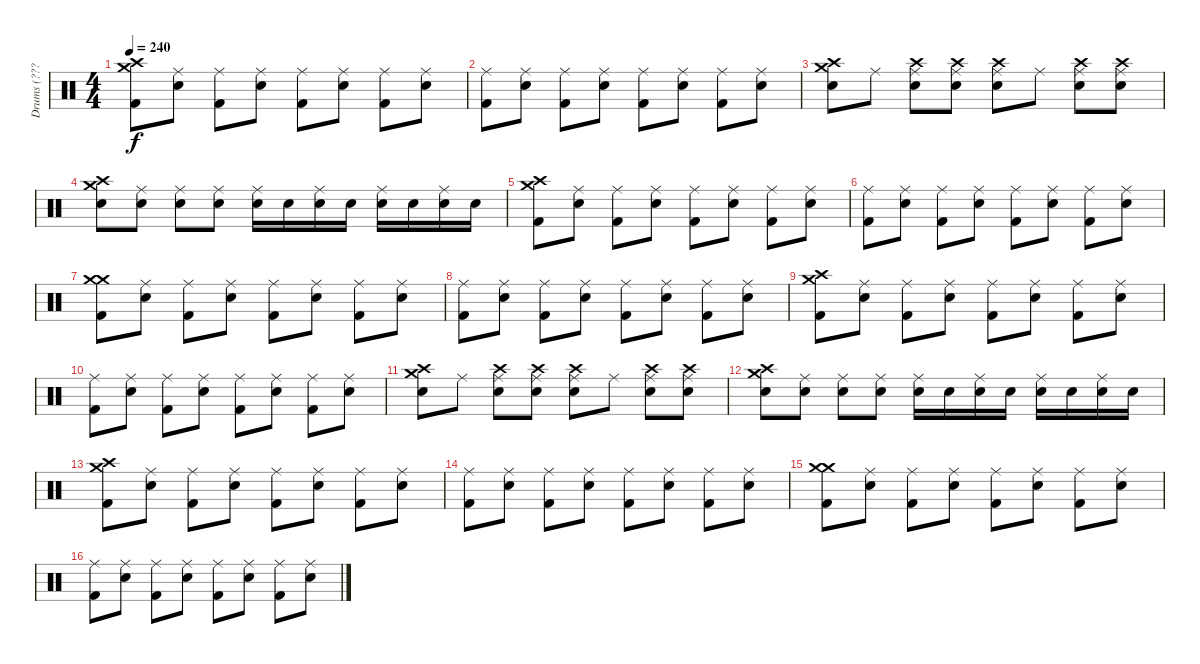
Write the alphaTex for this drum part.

\track ("Drums (????)" "Drums (???") {instrument percussion}
\staff {score}
\articulation defaults
\ts (4 4)
\tempo 240
\clef neutral
\ks c
("Crash medium (hit)" "Crash high (hit)" "Kick (hit) 2").8{dy f} ("Ride (middle)" "Snare (hit) 2").8 ("Ride (middle)" "Kick (hit) 2").8 ("Ride (middle)" "Snare (hit) 2").8 ("Ride (middle)" "Kick (hit) 2").8 ("Ride (middle)" "Snare (hit) 2").8 ("Ride (middle)" "Kick (hit) 2").8 ("Ride (middle)" "Snare (hit) 2").8 |
("Ride (middle)" "Kick (hit) 2").8 ("Ride (middle)" "Snare (hit) 2").8 ("Ride (middle)" "Kick (hit) 2").8 ("Ride (middle)" "Snare (hit) 2").8 ("Ride (middle)" "Kick (hit) 2").8 ("Ride (middle)" "Snare (hit) 2").8 ("Ride (middle)" "Kick (hit) 2").8 ("Ride (middle)" "Snare (hit) 2").8 |
("Crash medium (hit)" "Crash high (hit)" "Snare (hit) 2").8 "Ride (middle)".8 ("Ride (middle)" "Crash high (hit)" "Snare (hit) 2").8 ("Ride (middle)" "Crash high (hit)" "Snare (hit) 2").8 ("Ride (middle)" "Crash high (hit)" "Snare (hit) 2").8 "Ride (middle)".8 ("Ride (middle)" "Crash high (hit)" "Snare (hit) 2").8 ("Ride (middle)" "Crash high (hit)" "Snare (hit) 2").8 |
("Crash medium (hit)" "Crash high (hit)" "Snare (hit) 2").8 ("Ride (middle)" "Snare (hit) 2").8 ("Ride (middle)" "Snare (hit) 2").8 ("Ride (middle)" "Snare (hit) 2").8 ("Ride (middle)" "Snare (hit) 2").16 "Snare (hit) 2".16 ("Ride (middle)" "Snare (hit) 2").16 "Snare (hit) 2".16 ("Ride (middle)" "Snare (hit) 2").16 "Snare (hit) 2".16 ("Ride (middle)" "Snare (hit) 2").16 "Snare (hit) 2".16 |
("Crash medium (hit)" "Crash high (hit)" "Kick (hit) 2").8 ("Ride (middle)" "Snare (hit) 2").8 ("Ride (middle)" "Kick (hit) 2").8 ("Ride (middle)" "Snare (hit) 2").8 ("Ride (middle)" "Kick (hit) 2").8 ("Ride (middle)" "Snare (hit) 2").8 ("Ride (middle)" "Kick (hit) 2").8 ("Ride (middle)" "Snare (hit) 2").8 |
("Ride (middle)" "Kick (hit) 2").8 ("Ride (middle)" "Snare (hit) 2").8 ("Ride (middle)" "Kick (hit) 2").8 ("Ride (middle)" "Snare (hit) 2").8 ("Ride (middle)" "Kick (hit) 2").8 ("Ride (middle)" "Snare (hit) 2").8 ("Ride (middle)" "Kick (hit) 2").8 ("Ride (middle)" "Snare (hit) 2").8 |
("Crash medium (hit)" "Crash medium (hit)" "Kick (hit) 2").8 ("Ride (middle)" "Snare (hit) 2").8 ("Ride (middle)" "Kick (hit) 2").8 ("Ride (middle)" "Snare (hit) 2").8 ("Ride (middle)" "Kick (hit) 2").8 ("Ride (middle)" "Snare (hit) 2").8 ("Ride (middle)" "Kick (hit) 2").8 ("Ride (middle)" "Snare (hit) 2").8 |
("Ride (middle)" "Kick (hit) 2").8 ("Ride (middle)" "Snare (hit) 2").8 ("Ride (middle)" "Kick (hit) 2").8 ("Ride (middle)" "Snare (hit) 2").8 ("Ride (middle)" "Kick (hit) 2").8 ("Ride (middle)" "Snare (hit) 2").8 ("Ride (middle)" "Kick (hit) 2").8 ("Ride (middle)" "Snare (hit) 2").8 |
("Crash medium (hit)" "Crash high (hit)" "Kick (hit) 2").8 ("Ride (middle)" "Snare (hit) 2").8 ("Ride (middle)" "Kick (hit) 2").8 ("Ride (middle)" "Snare (hit) 2").8 ("Ride (middle)" "Kick (hit) 2").8 ("Ride (middle)" "Snare (hit) 2").8 ("Ride (middle)" "Kick (hit) 2").8 ("Ride (middle)" "Snare (hit) 2").8 |
("Ride (middle)" "Kick (hit) 2").8 ("Ride (middle)" "Snare (hit) 2").8 ("Ride (middle)" "Kick (hit) 2").8 ("Ride (middle)" "Snare (hit) 2").8 ("Ride (middle)" "Kick (hit) 2").8 ("Ride (middle)" "Snare (hit) 2").8 ("Ride (middle)" "Kick (hit) 2").8 ("Ride (middle)" "Snare (hit) 2").8 |
("Crash medium (hit)" "Crash high (hit)" "Snare (hit) 2").8 "Ride (middle)".8 ("Ride (middle)" "Crash high (hit)" "Snare (hit) 2").8 ("Ride (middle)" "Crash high (hit)" "Snare (hit) 2").8 ("Ride (middle)" "Crash high (hit)" "Snare (hit) 2").8 "Ride (middle)".8 ("Ride (middle)" "Crash high (hit)" "Snare (hit) 2").8 ("Ride (middle)" "Crash high (hit)" "Snare (hit) 2").8 |
("Crash medium (hit)" "Crash high (hit)" "Snare (hit) 2").8 ("Ride (middle)" "Snare (hit) 2").8 ("Ride (middle)" "Snare (hit) 2").8 ("Ride (middle)" "Snare (hit) 2").8 ("Ride (middle)" "Snare (hit) 2").16 "Snare (hit) 2".16 ("Ride (middle)" "Snare (hit) 2").16 "Snare (hit) 2".16 ("Ride (middle)" "Snare (hit) 2").16 "Snare (hit) 2".16 ("Ride (middle)" "Snare (hit) 2").16 "Snare (hit) 2".16 |
("Crash medium (hit)" "Crash high (hit)" "Kick (hit) 2").8 ("Ride (middle)" "Snare (hit) 2").8 ("Ride (middle)" "Kick (hit) 2").8 ("Ride (middle)" "Snare (hit) 2").8 ("Ride (middle)" "Kick (hit) 2").8 ("Ride (middle)" "Snare (hit) 2").8 ("Ride (middle)" "Kick (hit) 2").8 ("Ride (middle)" "Snare (hit) 2").8 |
("Ride (middle)" "Kick (hit) 2").8 ("Ride (middle)" "Snare (hit) 2").8 ("Ride (middle)" "Kick (hit) 2").8 ("Ride (middle)" "Snare (hit) 2").8 ("Ride (middle)" "Kick (hit) 2").8 ("Ride (middle)" "Snare (hit) 2").8 ("Ride (middle)" "Kick (hit) 2").8 ("Ride (middle)" "Snare (hit) 2").8 |
("Crash medium (hit)" "Crash medium (hit)" "Kick (hit) 2").8 ("Ride (middle)" "Snare (hit) 2").8 ("Ride (middle)" "Kick (hit) 2").8 ("Ride (middle)" "Snare (hit) 2").8 ("Ride (middle)" "Kick (hit) 2").8 ("Ride (middle)" "Snare (hit) 2").8 ("Ride (middle)" "Kick (hit) 2").8 ("Ride (middle)" "Snare (hit) 2").8 |
("Ride (middle)" "Kick (hit) 2").8 ("Ride (middle)" "Snare (hit) 2").8 ("Ride (middle)" "Kick (hit) 2").8 ("Ride (middle)" "Snare (hit) 2").8 ("Ride (middle)" "Kick (hit) 2").8 ("Ride (middle)" "Snare (hit) 2").8 ("Ride (middle)" "Kick (hit) 2").8 ("Ride (middle)" "Snare (hit) 2").8
